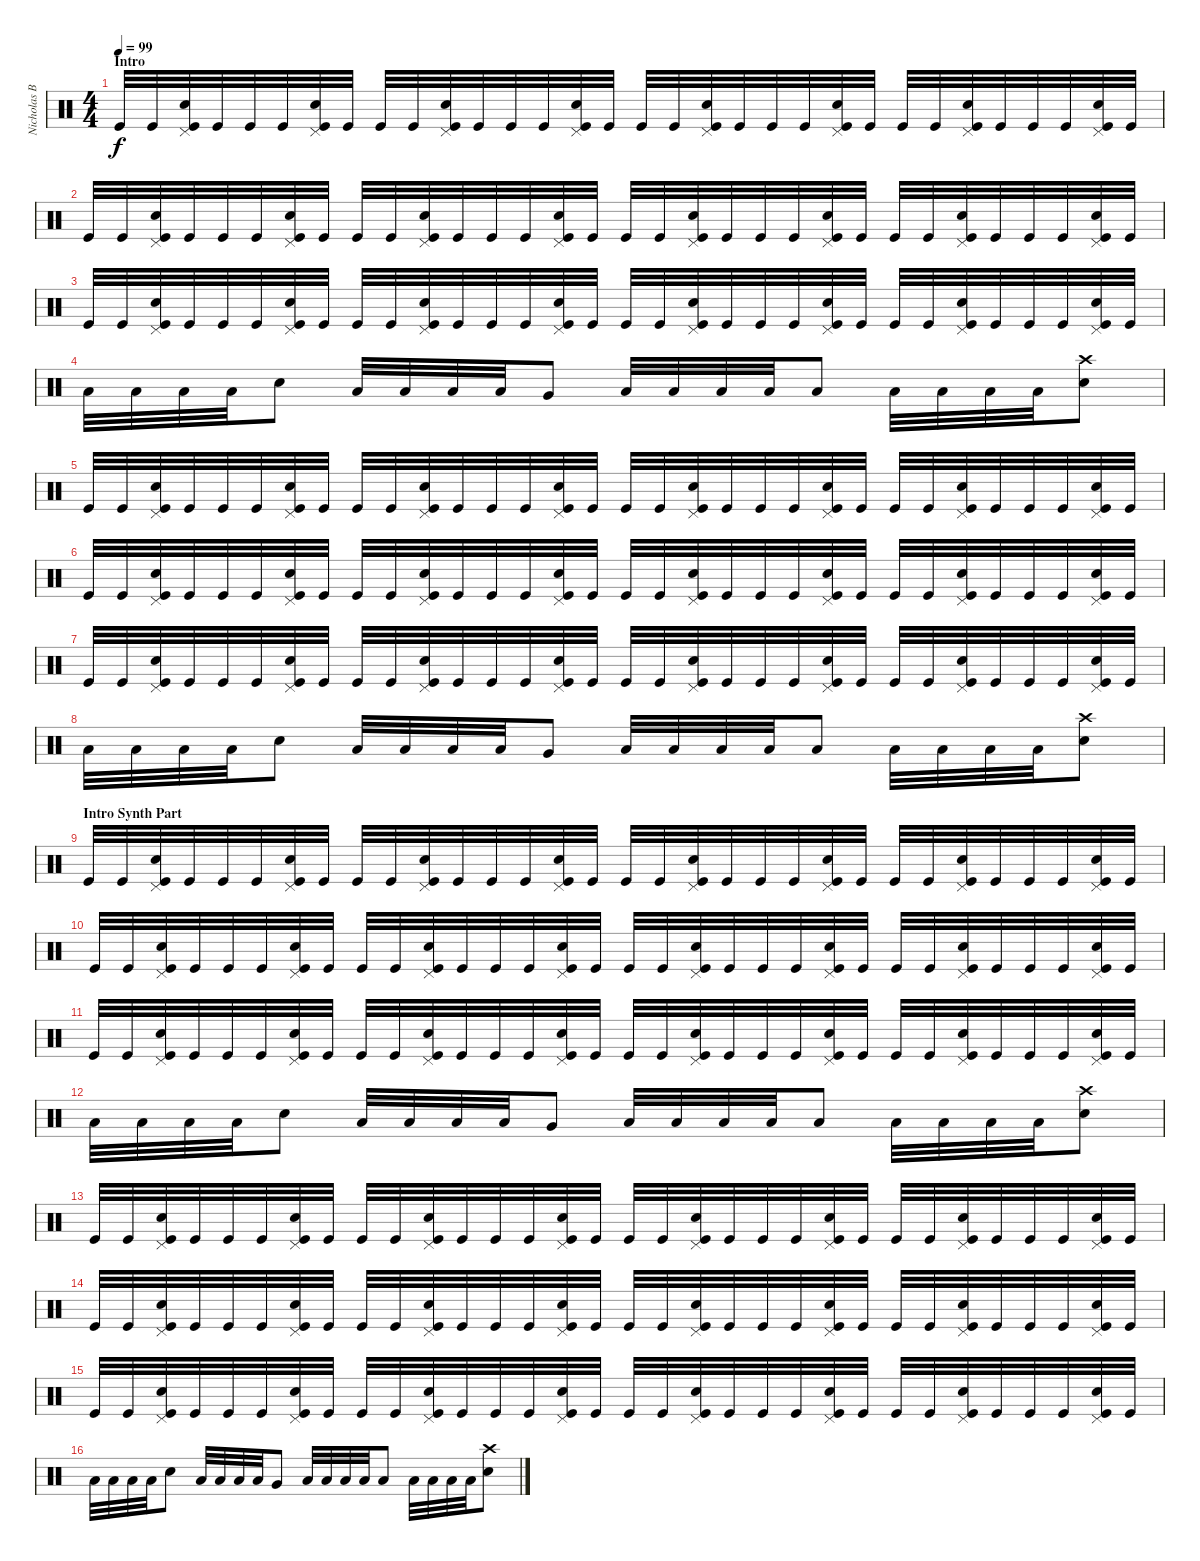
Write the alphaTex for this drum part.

\track ("Nicholas Barker" "Nicholas B") {instrument percussion}
\staff {score}
\articulation defaults
\ts (4 4)
\section ("" "Intro")
\tempo 99
\clef neutral
\ks c "Kick (hit)".32{dy f} "Kick (hit)".32
("Pedal Hi-Hat (hit)" "Snare (hit) 2" "Kick (hit)").32 "Kick (hit)".32 "Kick (hit)".32 "Kick (hit)".32 ("Pedal Hi-Hat (hit)" "Snare (hit) 2" "Kick (hit)").32 "Kick (hit)".32 "Kick (hit)".32 "Kick (hit)".32 ("Pedal Hi-Hat (hit)" "Snare (hit) 2" "Kick (hit)").32 "Kick (hit)".32 "Kick (hit)".32 "Kick (hit)".32 ("Pedal Hi-Hat (hit)" "Snare (hit) 2" "Kick (hit)").32 "Kick (hit)".32 "Kick (hit)".32 "Kick (hit)".32 ("Pedal Hi-Hat (hit)" "Snare (hit) 2" "Kick (hit)").32 "Kick (hit)".32 "Kick (hit)".32 "Kick (hit)".32 ("Pedal Hi-Hat (hit)" "Snare (hit) 2" "Kick (hit)").32 "Kick (hit)".32 "Kick (hit)".32 "Kick (hit)".32 ("Pedal Hi-Hat (hit)" "Snare (hit) 2" "Kick (hit)").32 "Kick (hit)".32 "Kick (hit)".32 "Kick (hit)".32 ("Pedal Hi-Hat (hit)" "Snare (hit) 2" "Kick (hit)").32 "Kick (hit)".32 |
"Kick (hit)".32 "Kick (hit)".32 ("Pedal Hi-Hat (hit)" "Snare (hit) 2" "Kick (hit)").32 "Kick (hit)".32 "Kick (hit)".32 "Kick (hit)".32 ("Pedal Hi-Hat (hit)" "Snare (hit) 2" "Kick (hit)").32 "Kick (hit)".32 "Kick (hit)".32 "Kick (hit)".32 ("Pedal Hi-Hat (hit)" "Snare (hit) 2" "Kick (hit)").32 "Kick (hit)".32 "Kick (hit)".32 "Kick (hit)".32 ("Pedal Hi-Hat (hit)" "Snare (hit) 2" "Kick (hit)").32 "Kick (hit)".32 "Kick (hit)".32 "Kick (hit)".32 ("Pedal Hi-Hat (hit)" "Snare (hit) 2" "Kick (hit)").32 "Kick (hit)".32 "Kick (hit)".32 "Kick (hit)".32 ("Pedal Hi-Hat (hit)" "Snare (hit) 2" "Kick (hit)").32 "Kick (hit)".32 "Kick (hit)".32 "Kick (hit)".32 ("Pedal Hi-Hat (hit)" "Snare (hit) 2" "Kick (hit)").32 "Kick (hit)".32 "Kick (hit)".32 "Kick (hit)".32 ("Pedal Hi-Hat (hit)" "Snare (hit) 2" "Kick (hit)").32 "Kick (hit)".32 |
"Kick (hit)".32 "Kick (hit)".32 ("Pedal Hi-Hat (hit)" "Snare (hit) 2" "Kick (hit)").32 "Kick (hit)".32 "Kick (hit)".32 "Kick (hit)".32 ("Pedal Hi-Hat (hit)" "Snare (hit) 2" "Kick (hit)").32 "Kick (hit)".32 "Kick (hit)".32 "Kick (hit)".32 ("Pedal Hi-Hat (hit)" "Snare (hit) 2" "Kick (hit)").32 "Kick (hit)".32 "Kick (hit)".32 "Kick (hit)".32 ("Pedal Hi-Hat (hit)" "Snare (hit) 2" "Kick (hit)").32 "Kick (hit)".32 "Kick (hit)".32 "Kick (hit)".32 ("Pedal Hi-Hat (hit)" "Snare (hit) 2" "Kick (hit)").32 "Kick (hit)".32 "Kick (hit)".32 "Kick (hit)".32 ("Pedal Hi-Hat (hit)" "Snare (hit) 2" "Kick (hit)").32 "Kick (hit)".32 "Kick (hit)".32 "Kick (hit)".32 ("Pedal Hi-Hat (hit)" "Snare (hit) 2" "Kick (hit)").32 "Kick (hit)".32 "Kick (hit)".32 "Kick (hit)".32 ("Pedal Hi-Hat (hit)" "Snare (hit) 2" "Kick (hit)").32 "Kick (hit)".32 |
"Low Tom (hit)".32 "Low Tom (hit)".32 "Low Tom (hit)".32 "Low Tom (hit)".32 "Snare (hit) 2".8 "Low Tom (hit)".32 "Low Tom (hit)".32 "Low Tom (hit)".32 "Low Tom (hit)".32 "Very Low Tom (hit)".8 "Low Tom (hit)".32 "Low Tom (hit)".32 "Low Tom (hit)".32 "Low Tom (hit)".32 "Low Floor Tom (hit)".8 "Low Tom (hit)".32 "Low Tom (hit)".32 "Low Tom (hit)".32 "Low Tom (hit)".32 ("Crash high (hit)" "Snare (hit) 2").8 |
"Kick (hit)".32 "Kick (hit)".32 ("Pedal Hi-Hat (hit)" "Snare (hit) 2" "Kick (hit)").32 "Kick (hit)".32 "Kick (hit)".32 "Kick (hit)".32 ("Pedal Hi-Hat (hit)" "Snare (hit) 2" "Kick (hit)").32 "Kick (hit)".32 "Kick (hit)".32 "Kick (hit)".32 ("Pedal Hi-Hat (hit)" "Snare (hit) 2" "Kick (hit)").32 "Kick (hit)".32 "Kick (hit)".32 "Kick (hit)".32 ("Pedal Hi-Hat (hit)" "Snare (hit) 2" "Kick (hit)").32 "Kick (hit)".32 "Kick (hit)".32 "Kick (hit)".32 ("Pedal Hi-Hat (hit)" "Snare (hit) 2" "Kick (hit)").32 "Kick (hit)".32 "Kick (hit)".32 "Kick (hit)".32 ("Pedal Hi-Hat (hit)" "Snare (hit) 2" "Kick (hit)").32 "Kick (hit)".32 "Kick (hit)".32 "Kick (hit)".32 ("Pedal Hi-Hat (hit)" "Snare (hit) 2" "Kick (hit)").32 "Kick (hit)".32 "Kick (hit)".32 "Kick (hit)".32 ("Pedal Hi-Hat (hit)" "Snare (hit) 2" "Kick (hit)").32 "Kick (hit)".32 |
"Kick (hit)".32 "Kick (hit)".32 ("Pedal Hi-Hat (hit)" "Snare (hit) 2" "Kick (hit)").32 "Kick (hit)".32 "Kick (hit)".32 "Kick (hit)".32 ("Pedal Hi-Hat (hit)" "Snare (hit) 2" "Kick (hit)").32 "Kick (hit)".32 "Kick (hit)".32 "Kick (hit)".32 ("Pedal Hi-Hat (hit)" "Snare (hit) 2" "Kick (hit)").32 "Kick (hit)".32 "Kick (hit)".32 "Kick (hit)".32 ("Pedal Hi-Hat (hit)" "Snare (hit) 2" "Kick (hit)").32 "Kick (hit)".32 "Kick (hit)".32 "Kick (hit)".32 ("Pedal Hi-Hat (hit)" "Snare (hit) 2" "Kick (hit)").32 "Kick (hit)".32 "Kick (hit)".32 "Kick (hit)".32 ("Pedal Hi-Hat (hit)" "Snare (hit) 2" "Kick (hit)").32 "Kick (hit)".32 "Kick (hit)".32 "Kick (hit)".32 ("Pedal Hi-Hat (hit)" "Snare (hit) 2" "Kick (hit)").32 "Kick (hit)".32 "Kick (hit)".32 "Kick (hit)".32 ("Pedal Hi-Hat (hit)" "Snare (hit) 2" "Kick (hit)").32 "Kick (hit)".32 |
"Kick (hit)".32 "Kick (hit)".32 ("Pedal Hi-Hat (hit)" "Snare (hit) 2" "Kick (hit)").32 "Kick (hit)".32 "Kick (hit)".32 "Kick (hit)".32 ("Pedal Hi-Hat (hit)" "Snare (hit) 2" "Kick (hit)").32 "Kick (hit)".32 "Kick (hit)".32 "Kick (hit)".32 ("Pedal Hi-Hat (hit)" "Snare (hit) 2" "Kick (hit)").32 "Kick (hit)".32 "Kick (hit)".32 "Kick (hit)".32 ("Pedal Hi-Hat (hit)" "Snare (hit) 2" "Kick (hit)").32 "Kick (hit)".32 "Kick (hit)".32 "Kick (hit)".32 ("Pedal Hi-Hat (hit)" "Snare (hit) 2" "Kick (hit)").32 "Kick (hit)".32 "Kick (hit)".32 "Kick (hit)".32 ("Pedal Hi-Hat (hit)" "Snare (hit) 2" "Kick (hit)").32 "Kick (hit)".32 "Kick (hit)".32 "Kick (hit)".32 ("Pedal Hi-Hat (hit)" "Snare (hit) 2" "Kick (hit)").32 "Kick (hit)".32 "Kick (hit)".32 "Kick (hit)".32 ("Pedal Hi-Hat (hit)" "Snare (hit) 2" "Kick (hit)").32 "Kick (hit)".32 |
"Low Tom (hit)".32 "Low Tom (hit)".32 "Low Tom (hit)".32 "Low Tom (hit)".32 "Snare (hit) 2".8 "Low Tom (hit)".32 "Low Tom (hit)".32 "Low Tom (hit)".32 "Low Tom (hit)".32 "Very Low Tom (hit)".8 "Low Tom (hit)".32 "Low Tom (hit)".32 "Low Tom (hit)".32 "Low Tom (hit)".32 "Low Floor Tom (hit)".8 "Low Tom (hit)".32 "Low Tom (hit)".32 "Low Tom (hit)".32 "Low Tom (hit)".32 ("Crash high (hit)" "Snare (hit) 2").8 |
\section ("" "Intro Synth Part")
"Kick (hit)".32 "Kick (hit)".32 ("Pedal Hi-Hat (hit)" "Snare (hit) 2" "Kick (hit)").32 "Kick (hit)".32 "Kick (hit)".32 "Kick (hit)".32 ("Pedal Hi-Hat (hit)" "Snare (hit) 2" "Kick (hit)").32 "Kick (hit)".32 "Kick (hit)".32 "Kick (hit)".32 ("Pedal Hi-Hat (hit)" "Snare (hit) 2" "Kick (hit)").32 "Kick (hit)".32 "Kick (hit)".32 "Kick (hit)".32 ("Pedal Hi-Hat (hit)" "Snare (hit) 2" "Kick (hit)").32 "Kick (hit)".32 "Kick (hit)".32 "Kick (hit)".32 ("Pedal Hi-Hat (hit)" "Snare (hit) 2" "Kick (hit)").32 "Kick (hit)".32 "Kick (hit)".32 "Kick (hit)".32 ("Pedal Hi-Hat (hit)" "Snare (hit) 2" "Kick (hit)").32 "Kick (hit)".32 "Kick (hit)".32 "Kick (hit)".32 ("Pedal Hi-Hat (hit)" "Snare (hit) 2" "Kick (hit)").32 "Kick (hit)".32 "Kick (hit)".32 "Kick (hit)".32 ("Pedal Hi-Hat (hit)" "Snare (hit) 2" "Kick (hit)").32 "Kick (hit)".32 |
"Kick (hit)".32 "Kick (hit)".32 ("Pedal Hi-Hat (hit)" "Snare (hit) 2" "Kick (hit)").32 "Kick (hit)".32 "Kick (hit)".32 "Kick (hit)".32 ("Pedal Hi-Hat (hit)" "Snare (hit) 2" "Kick (hit)").32 "Kick (hit)".32 "Kick (hit)".32 "Kick (hit)".32 ("Pedal Hi-Hat (hit)" "Snare (hit) 2" "Kick (hit)").32 "Kick (hit)".32 "Kick (hit)".32 "Kick (hit)".32 ("Pedal Hi-Hat (hit)" "Snare (hit) 2" "Kick (hit)").32 "Kick (hit)".32 "Kick (hit)".32 "Kick (hit)".32 ("Pedal Hi-Hat (hit)" "Snare (hit) 2" "Kick (hit)").32 "Kick (hit)".32 "Kick (hit)".32 "Kick (hit)".32 ("Pedal Hi-Hat (hit)" "Snare (hit) 2" "Kick (hit)").32 "Kick (hit)".32 "Kick (hit)".32 "Kick (hit)".32 ("Pedal Hi-Hat (hit)" "Snare (hit) 2" "Kick (hit)").32 "Kick (hit)".32 "Kick (hit)".32 "Kick (hit)".32 ("Pedal Hi-Hat (hit)" "Snare (hit) 2" "Kick (hit)").32 "Kick (hit)".32 |
"Kick (hit)".32 "Kick (hit)".32 ("Pedal Hi-Hat (hit)" "Snare (hit) 2" "Kick (hit)").32 "Kick (hit)".32 "Kick (hit)".32 "Kick (hit)".32 ("Pedal Hi-Hat (hit)" "Snare (hit) 2" "Kick (hit)").32 "Kick (hit)".32 "Kick (hit)".32 "Kick (hit)".32 ("Pedal Hi-Hat (hit)" "Snare (hit) 2" "Kick (hit)").32 "Kick (hit)".32 "Kick (hit)".32 "Kick (hit)".32 ("Pedal Hi-Hat (hit)" "Snare (hit) 2" "Kick (hit)").32 "Kick (hit)".32 "Kick (hit)".32 "Kick (hit)".32 ("Pedal Hi-Hat (hit)" "Snare (hit) 2" "Kick (hit)").32 "Kick (hit)".32 "Kick (hit)".32 "Kick (hit)".32 ("Pedal Hi-Hat (hit)" "Snare (hit) 2" "Kick (hit)").32 "Kick (hit)".32 "Kick (hit)".32 "Kick (hit)".32 ("Pedal Hi-Hat (hit)" "Snare (hit) 2" "Kick (hit)").32 "Kick (hit)".32 "Kick (hit)".32 "Kick (hit)".32 ("Pedal Hi-Hat (hit)" "Snare (hit) 2" "Kick (hit)").32 "Kick (hit)".32 |
"Low Tom (hit)".32 "Low Tom (hit)".32 "Low Tom (hit)".32 "Low Tom (hit)".32 "Snare (hit) 2".8 "Low Tom (hit)".32 "Low Tom (hit)".32 "Low Tom (hit)".32 "Low Tom (hit)".32 "Very Low Tom (hit)".8 "Low Tom (hit)".32 "Low Tom (hit)".32 "Low Tom (hit)".32 "Low Tom (hit)".32 "Low Floor Tom (hit)".8 "Low Tom (hit)".32 "Low Tom (hit)".32 "Low Tom (hit)".32 "Low Tom (hit)".32 ("Crash high (hit)" "Snare (hit) 2").8 |
"Kick (hit)".32 "Kick (hit)".32 ("Pedal Hi-Hat (hit)" "Snare (hit) 2" "Kick (hit)").32 "Kick (hit)".32 "Kick (hit)".32 "Kick (hit)".32 ("Pedal Hi-Hat (hit)" "Snare (hit) 2" "Kick (hit)").32 "Kick (hit)".32 "Kick (hit)".32 "Kick (hit)".32 ("Pedal Hi-Hat (hit)" "Snare (hit) 2" "Kick (hit)").32 "Kick (hit)".32 "Kick (hit)".32 "Kick (hit)".32 ("Pedal Hi-Hat (hit)" "Snare (hit) 2" "Kick (hit)").32 "Kick (hit)".32 "Kick (hit)".32 "Kick (hit)".32 ("Pedal Hi-Hat (hit)" "Snare (hit) 2" "Kick (hit)").32 "Kick (hit)".32 "Kick (hit)".32 "Kick (hit)".32 ("Pedal Hi-Hat (hit)" "Snare (hit) 2" "Kick (hit)").32 "Kick (hit)".32 "Kick (hit)".32 "Kick (hit)".32 ("Pedal Hi-Hat (hit)" "Snare (hit) 2" "Kick (hit)").32 "Kick (hit)".32 "Kick (hit)".32 "Kick (hit)".32 ("Pedal Hi-Hat (hit)" "Snare (hit) 2" "Kick (hit)").32 "Kick (hit)".32 |
"Kick (hit)".32 "Kick (hit)".32 ("Pedal Hi-Hat (hit)" "Snare (hit) 2" "Kick (hit)").32 "Kick (hit)".32 "Kick (hit)".32 "Kick (hit)".32 ("Pedal Hi-Hat (hit)" "Snare (hit) 2" "Kick (hit)").32 "Kick (hit)".32 "Kick (hit)".32 "Kick (hit)".32 ("Pedal Hi-Hat (hit)" "Snare (hit) 2" "Kick (hit)").32 "Kick (hit)".32 "Kick (hit)".32 "Kick (hit)".32 ("Pedal Hi-Hat (hit)" "Snare (hit) 2" "Kick (hit)").32 "Kick (hit)".32 "Kick (hit)".32 "Kick (hit)".32 ("Pedal Hi-Hat (hit)" "Snare (hit) 2" "Kick (hit)").32 "Kick (hit)".32 "Kick (hit)".32 "Kick (hit)".32 ("Pedal Hi-Hat (hit)" "Snare (hit) 2" "Kick (hit)").32 "Kick (hit)".32 "Kick (hit)".32 "Kick (hit)".32 ("Pedal Hi-Hat (hit)" "Snare (hit) 2" "Kick (hit)").32 "Kick (hit)".32 "Kick (hit)".32 "Kick (hit)".32 ("Pedal Hi-Hat (hit)" "Snare (hit) 2" "Kick (hit)").32 "Kick (hit)".32 |
"Kick (hit)".32 "Kick (hit)".32 ("Pedal Hi-Hat (hit)" "Snare (hit) 2" "Kick (hit)").32 "Kick (hit)".32 "Kick (hit)".32 "Kick (hit)".32 ("Pedal Hi-Hat (hit)" "Snare (hit) 2" "Kick (hit)").32 "Kick (hit)".32 "Kick (hit)".32 "Kick (hit)".32 ("Pedal Hi-Hat (hit)" "Snare (hit) 2" "Kick (hit)").32 "Kick (hit)".32 "Kick (hit)".32 "Kick (hit)".32 ("Pedal Hi-Hat (hit)" "Snare (hit) 2" "Kick (hit)").32 "Kick (hit)".32 "Kick (hit)".32 "Kick (hit)".32 ("Pedal Hi-Hat (hit)" "Snare (hit) 2" "Kick (hit)").32 "Kick (hit)".32 "Kick (hit)".32 "Kick (hit)".32 ("Pedal Hi-Hat (hit)" "Snare (hit) 2" "Kick (hit)").32 "Kick (hit)".32 "Kick (hit)".32 "Kick (hit)".32 ("Pedal Hi-Hat (hit)" "Snare (hit) 2" "Kick (hit)").32 "Kick (hit)".32 "Kick (hit)".32 "Kick (hit)".32 ("Pedal Hi-Hat (hit)" "Snare (hit) 2" "Kick (hit)").32 "Kick (hit)".32 |
"Low Tom (hit)".32 "Low Tom (hit)".32 "Low Tom (hit)".32 "Low Tom (hit)".32 "Snare (hit) 2".8 "Low Tom (hit)".32 "Low Tom (hit)".32 "Low Tom (hit)".32 "Low Tom (hit)".32 "Very Low Tom (hit)".8 "Low Tom (hit)".32 "Low Tom (hit)".32 "Low Tom (hit)".32 "Low Tom (hit)".32 "Low Floor Tom (hit)".8 "Low Tom (hit)".32 "Low Tom (hit)".32 "Low Tom (hit)".32 "Low Tom (hit)".32 ("Crash high (hit)" "Snare (hit) 2").8
